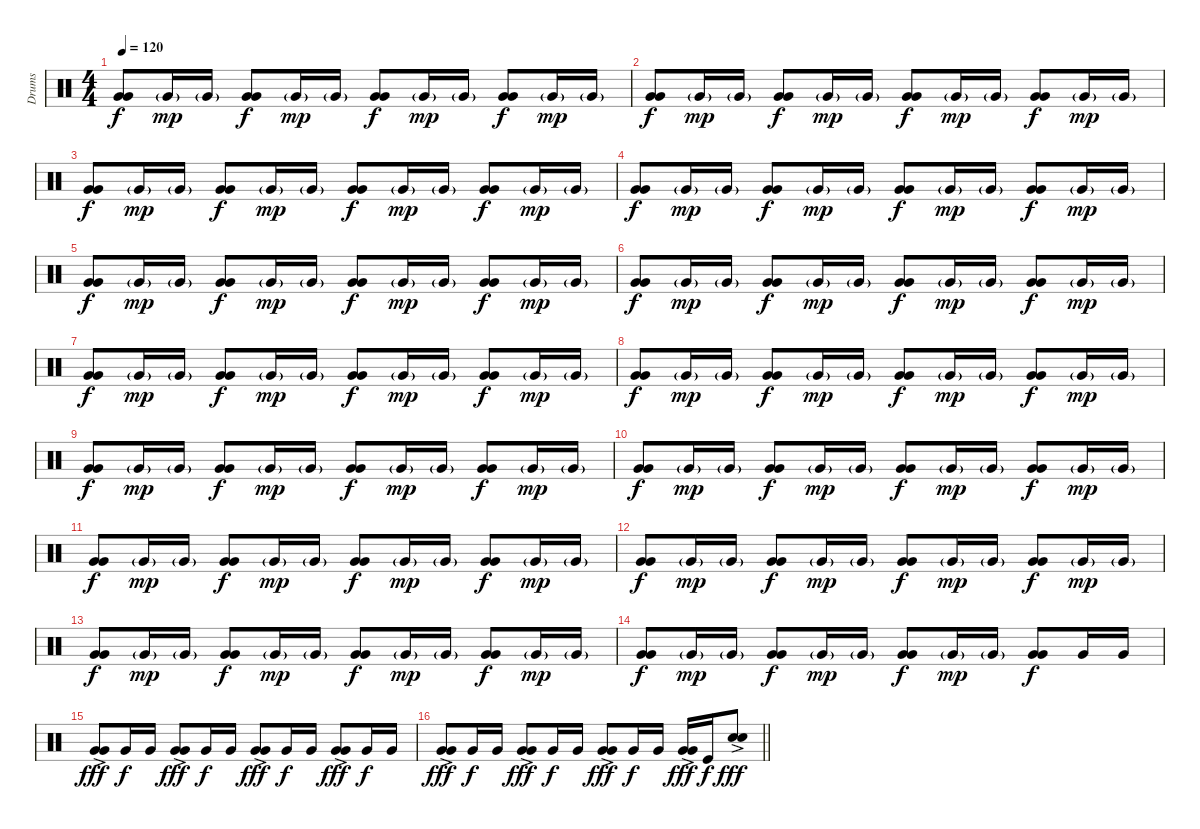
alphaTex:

\track ("Drums" "Drums") {instrument percussion}
\staff {score}
\articulation defaults
\ts (4 4)
\tempo 120
\clef neutral
\ks c
("Very Low Tom (hit)" "Very Low Tom (hit)").8{dy f} "Very Low Tom (hit)"{g}.16{dy mp} "Very Low Tom (hit)"{g}.16 ("Very Low Tom (hit)" "Very Low Tom (hit)").8{dy f} "Very Low Tom (hit)"{g}.16{dy mp} "Very Low Tom (hit)"{g}.16 ("Very Low Tom (hit)" "Very Low Tom (hit)").8{dy f} "Very Low Tom (hit)"{g}.16{dy mp} "Very Low Tom (hit)"{g}.16 ("Very Low Tom (hit)" "Very Low Tom (hit)").8{dy f} "Very Low Tom (hit)"{g}.16{dy mp} "Very Low Tom (hit)"{g}.16 |
("Very Low Tom (hit)" "Very Low Tom (hit)").8{dy f} "Very Low Tom (hit)"{g}.16{dy mp} "Very Low Tom (hit)"{g}.16 ("Very Low Tom (hit)" "Very Low Tom (hit)").8{dy f} "Very Low Tom (hit)"{g}.16{dy mp} "Very Low Tom (hit)"{g}.16 ("Very Low Tom (hit)" "Very Low Tom (hit)").8{dy f} "Very Low Tom (hit)"{g}.16{dy mp} "Very Low Tom (hit)"{g}.16 ("Very Low Tom (hit)" "Very Low Tom (hit)").8{dy f} "Very Low Tom (hit)"{g}.16{dy mp} "Very Low Tom (hit)"{g}.16 |
("Very Low Tom (hit)" "Very Low Tom (hit)").8{dy f} "Very Low Tom (hit)"{g}.16{dy mp} "Very Low Tom (hit)"{g}.16 ("Very Low Tom (hit)" "Very Low Tom (hit)").8{dy f} "Very Low Tom (hit)"{g}.16{dy mp} "Very Low Tom (hit)"{g}.16 ("Very Low Tom (hit)" "Very Low Tom (hit)").8{dy f} "Very Low Tom (hit)"{g}.16{dy mp} "Very Low Tom (hit)"{g}.16 ("Very Low Tom (hit)" "Very Low Tom (hit)").8{dy f} "Very Low Tom (hit)"{g}.16{dy mp} "Very Low Tom (hit)"{g}.16 |
("Very Low Tom (hit)" "Very Low Tom (hit)").8{dy f} "Very Low Tom (hit)"{g}.16{dy mp} "Very Low Tom (hit)"{g}.16 ("Very Low Tom (hit)" "Very Low Tom (hit)").8{dy f} "Very Low Tom (hit)"{g}.16{dy mp} "Very Low Tom (hit)"{g}.16 ("Very Low Tom (hit)" "Very Low Tom (hit)").8{dy f} "Very Low Tom (hit)"{g}.16{dy mp} "Very Low Tom (hit)"{g}.16 ("Very Low Tom (hit)" "Very Low Tom (hit)").8{dy f} "Very Low Tom (hit)"{g}.16{dy mp} "Very Low Tom (hit)"{g}.16 |
("Very Low Tom (hit)" "Very Low Tom (hit)").8{dy f} "Very Low Tom (hit)"{g}.16{dy mp} "Very Low Tom (hit)"{g}.16 ("Very Low Tom (hit)" "Very Low Tom (hit)").8{dy f} "Very Low Tom (hit)"{g}.16{dy mp} "Very Low Tom (hit)"{g}.16 ("Very Low Tom (hit)" "Very Low Tom (hit)").8{dy f} "Very Low Tom (hit)"{g}.16{dy mp} "Very Low Tom (hit)"{g}.16 ("Very Low Tom (hit)" "Very Low Tom (hit)").8{dy f} "Very Low Tom (hit)"{g}.16{dy mp} "Very Low Tom (hit)"{g}.16 |
("Very Low Tom (hit)" "Very Low Tom (hit)").8{dy f} "Very Low Tom (hit)"{g}.16{dy mp} "Very Low Tom (hit)"{g}.16 ("Very Low Tom (hit)" "Very Low Tom (hit)").8{dy f} "Very Low Tom (hit)"{g}.16{dy mp} "Very Low Tom (hit)"{g}.16 ("Very Low Tom (hit)" "Very Low Tom (hit)").8{dy f} "Very Low Tom (hit)"{g}.16{dy mp} "Very Low Tom (hit)"{g}.16 ("Very Low Tom (hit)" "Very Low Tom (hit)").8{dy f} "Very Low Tom (hit)"{g}.16{dy mp} "Very Low Tom (hit)"{g}.16 |
("Very Low Tom (hit)" "Very Low Tom (hit)").8{dy f} "Very Low Tom (hit)"{g}.16{dy mp} "Very Low Tom (hit)"{g}.16 ("Very Low Tom (hit)" "Very Low Tom (hit)").8{dy f} "Very Low Tom (hit)"{g}.16{dy mp} "Very Low Tom (hit)"{g}.16 ("Very Low Tom (hit)" "Very Low Tom (hit)").8{dy f} "Very Low Tom (hit)"{g}.16{dy mp} "Very Low Tom (hit)"{g}.16 ("Very Low Tom (hit)" "Very Low Tom (hit)").8{dy f} "Very Low Tom (hit)"{g}.16{dy mp} "Very Low Tom (hit)"{g}.16 |
("Very Low Tom (hit)" "Very Low Tom (hit)").8{dy f} "Very Low Tom (hit)"{g}.16{dy mp} "Very Low Tom (hit)"{g}.16 ("Very Low Tom (hit)" "Very Low Tom (hit)").8{dy f} "Very Low Tom (hit)"{g}.16{dy mp} "Very Low Tom (hit)"{g}.16 ("Very Low Tom (hit)" "Very Low Tom (hit)").8{dy f} "Very Low Tom (hit)"{g}.16{dy mp} "Very Low Tom (hit)"{g}.16 ("Very Low Tom (hit)" "Very Low Tom (hit)").8{dy f} "Very Low Tom (hit)"{g}.16{dy mp} "Very Low Tom (hit)"{g}.16 |
("Very Low Tom (hit)" "Very Low Tom (hit)").8{dy f} "Very Low Tom (hit)"{g}.16{dy mp} "Very Low Tom (hit)"{g}.16 ("Very Low Tom (hit)" "Very Low Tom (hit)").8{dy f} "Very Low Tom (hit)"{g}.16{dy mp} "Very Low Tom (hit)"{g}.16 ("Very Low Tom (hit)" "Very Low Tom (hit)").8{dy f} "Very Low Tom (hit)"{g}.16{dy mp} "Very Low Tom (hit)"{g}.16 ("Very Low Tom (hit)" "Very Low Tom (hit)").8{dy f} "Very Low Tom (hit)"{g}.16{dy mp} "Very Low Tom (hit)"{g}.16 |
("Very Low Tom (hit)" "Very Low Tom (hit)").8{dy f} "Very Low Tom (hit)"{g}.16{dy mp} "Very Low Tom (hit)"{g}.16 ("Very Low Tom (hit)" "Very Low Tom (hit)").8{dy f} "Very Low Tom (hit)"{g}.16{dy mp} "Very Low Tom (hit)"{g}.16 ("Very Low Tom (hit)" "Very Low Tom (hit)").8{dy f} "Very Low Tom (hit)"{g}.16{dy mp} "Very Low Tom (hit)"{g}.16 ("Very Low Tom (hit)" "Very Low Tom (hit)").8{dy f} "Very Low Tom (hit)"{g}.16{dy mp} "Very Low Tom (hit)"{g}.16 |
("Very Low Tom (hit)" "Very Low Tom (hit)").8{dy f} "Very Low Tom (hit)"{g}.16{dy mp} "Very Low Tom (hit)"{g}.16 ("Very Low Tom (hit)" "Very Low Tom (hit)").8{dy f} "Very Low Tom (hit)"{g}.16{dy mp} "Very Low Tom (hit)"{g}.16 ("Very Low Tom (hit)" "Very Low Tom (hit)").8{dy f} "Very Low Tom (hit)"{g}.16{dy mp} "Very Low Tom (hit)"{g}.16 ("Very Low Tom (hit)" "Very Low Tom (hit)").8{dy f} "Very Low Tom (hit)"{g}.16{dy mp} "Very Low Tom (hit)"{g}.16 |
("Very Low Tom (hit)" "Very Low Tom (hit)").8{dy f} "Very Low Tom (hit)"{g}.16{dy mp} "Very Low Tom (hit)"{g}.16 ("Very Low Tom (hit)" "Very Low Tom (hit)").8{dy f} "Very Low Tom (hit)"{g}.16{dy mp} "Very Low Tom (hit)"{g}.16 ("Very Low Tom (hit)" "Very Low Tom (hit)").8{dy f} "Very Low Tom (hit)"{g}.16{dy mp} "Very Low Tom (hit)"{g}.16 ("Very Low Tom (hit)" "Very Low Tom (hit)").8{dy f} "Very Low Tom (hit)"{g}.16{dy mp} "Very Low Tom (hit)"{g}.16 |
("Very Low Tom (hit)" "Very Low Tom (hit)").8{dy f} "Very Low Tom (hit)"{g}.16{dy mp} "Very Low Tom (hit)"{g}.16 ("Very Low Tom (hit)" "Very Low Tom (hit)").8{dy f} "Very Low Tom (hit)"{g}.16{dy mp} "Very Low Tom (hit)"{g}.16 ("Very Low Tom (hit)" "Very Low Tom (hit)").8{dy f} "Very Low Tom (hit)"{g}.16{dy mp} "Very Low Tom (hit)"{g}.16 ("Very Low Tom (hit)" "Very Low Tom (hit)").8{dy f} "Very Low Tom (hit)"{g}.16{dy mp} "Very Low Tom (hit)"{g}.16 |
("Very Low Tom (hit)" "Very Low Tom (hit)").8{dy f} "Very Low Tom (hit)"{g}.16{dy mp} "Very Low Tom (hit)"{g}.16 ("Very Low Tom (hit)" "Very Low Tom (hit)").8{dy f} "Very Low Tom (hit)"{g}.16{dy mp} "Very Low Tom (hit)"{g}.16 ("Very Low Tom (hit)" "Very Low Tom (hit)").8{dy f} "Very Low Tom (hit)"{g}.16{dy mp} "Very Low Tom (hit)"{g}.16 ("Very Low Tom (hit)" "Very Low Tom (hit)").8{dy f} "Very Low Tom (hit)".16 "Very Low Tom (hit)".16 |
("Very Low Tom (hit)"{ac} "Very Low Tom (hit)"{ac}).8{dy fff} "Very Low Tom (hit)".16{dy f} "Very Low Tom (hit)".16 ("Very Low Tom (hit)"{ac} "Very Low Tom (hit)"{ac}).8{dy fff} "Very Low Tom (hit)".16{dy f} "Very Low Tom (hit)".16 ("Very Low Tom (hit)"{ac} "Very Low Tom (hit)"{ac}).8{dy fff} "Very Low Tom (hit)".16{dy f} "Very Low Tom (hit)".16 ("Very Low Tom (hit)"{ac} "Very Low Tom (hit)"{ac}).8{dy fff} "Very Low Tom (hit)".16{dy f} "Very Low Tom (hit)".16 |
\barLineRight lightlight
("Very Low Tom (hit)"{ac} "Very Low Tom (hit)"{ac}).8{dy fff} "Very Low Tom (hit)".16{dy f} "Very Low Tom (hit)".16 ("Very Low Tom (hit)"{ac} "Very Low Tom (hit)"{ac}).8{dy fff} "Very Low Tom (hit)".16{dy f} "Very Low Tom (hit)".16 ("Very Low Tom (hit)"{ac} "Very Low Tom (hit)"{ac}).8{dy fff} "Very Low Tom (hit)".16{dy f} "Very Low Tom (hit)".16 ("Very Low Tom (hit)"{ac} "Very Low Tom (hit)"{ac}).16{dy fff} "Kick (hit)".16{dy f} ("Snare (hit) 2"{ac} "Snare (hit) 2"{ac}).8{dy fff}
